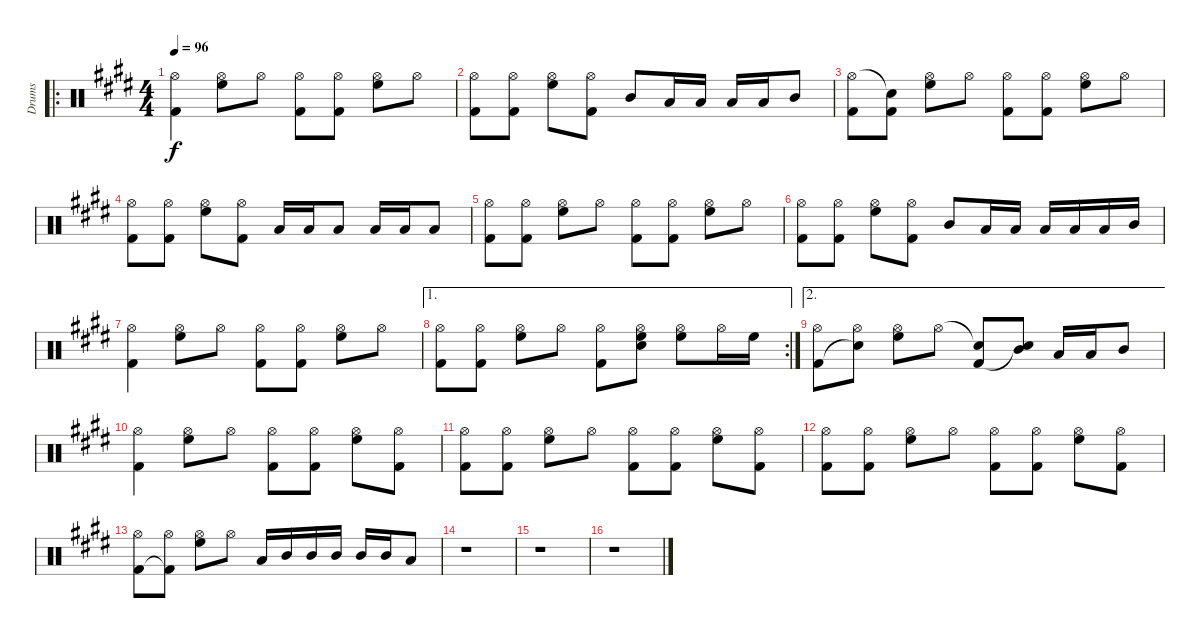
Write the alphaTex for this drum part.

\track ("Drums" "Drums") {instrument percussion}
\staff {score}
\articulation defaults
\ro
\ts (4 4)
\tempo 96
\clef neutral
\ks e
("Hi-Hat (open)" "Kick (hit) 2").4{dy f} ("Hi-Hat (open)" "High Floor Tom (hit)").8 "Hi-Hat (open)".8 ("Hi-Hat (open)" "Kick (hit) 2").8 ("Hi-Hat (open)" "Kick (hit) 2").8 ("Hi-Hat (open)" "High Floor Tom (hit)").8 "Hi-Hat (open)".8 |
("Hi-Hat (open)" "Kick (hit) 2").8 ("Hi-Hat (open)" "Kick (hit) 2").8 ("Hi-Hat (open)" "High Floor Tom (hit)").8 ("Hi-Hat (open)" "Kick (hit) 2").8 "Mid Tom (hit)".8 "Low Tom (hit)".16 "Low Tom (hit)".16 "Low Tom (hit)".16 "Low Tom (hit)".16 "Mid Tom (hit)".8 |
("Hi-Hat (open)" "Kick (hit) 2").8 ("Snare (hit)"{t} "Kick (hit) 2").8 ("Hi-Hat (open)" "High Floor Tom (hit)").8 "Hi-Hat (open)".8 ("Hi-Hat (open)" "Kick (hit) 2").8 ("Hi-Hat (open)" "Kick (hit) 2").8 ("Hi-Hat (open)" "High Floor Tom (hit)").8 "Hi-Hat (open)".8 |
("Hi-Hat (open)" "Kick (hit) 2").8 ("Hi-Hat (open)" "Kick (hit) 2").8 ("Hi-Hat (open)" "High Floor Tom (hit)").8 ("Hi-Hat (open)" "Kick (hit) 2").8 "Low Tom (hit)".16 "Low Tom (hit)".16 "Low Tom (hit)".8 "Low Tom (hit)".16 "Low Tom (hit)".16 "Low Tom (hit)".8 |
("Hi-Hat (open)" "Kick (hit) 2").8 ("Hi-Hat (open)" "Kick (hit) 2").8 ("Hi-Hat (open)" "High Floor Tom (hit)").8 "Hi-Hat (open)".8 ("Hi-Hat (open)" "Kick (hit) 2").8 ("Hi-Hat (open)" "Kick (hit) 2").8 ("Hi-Hat (open)" "High Floor Tom (hit)").8 "Hi-Hat (open)".8 |
("Hi-Hat (open)" "Kick (hit) 2").8 ("Hi-Hat (open)" "Kick (hit) 2").8 ("Hi-Hat (open)" "High Floor Tom (hit)").8 ("Hi-Hat (open)" "Kick (hit) 2").8 "Mid Tom (hit)".8 "Low Tom (hit)".16 "Low Tom (hit)".16 "Low Tom (hit)".16 "Low Tom (hit)".16 "Low Tom (hit)".16 "Mid Tom (hit)".16 |
("Hi-Hat (open)" "Kick (hit) 2").4 ("Hi-Hat (open)" "High Floor Tom (hit)").8 "Hi-Hat (open)".8 ("Hi-Hat (open)" "Kick (hit) 2").8 ("Hi-Hat (open)" "Kick (hit) 2").8 ("Hi-Hat (open)" "High Floor Tom (hit)").8 "Hi-Hat (open)".8 |
\ae 1
\rc 2
("Hi-Hat (open)" "Kick (hit) 2").8 ("Hi-Hat (open)" "Kick (hit) 2").8 ("Hi-Hat (open)" "High Floor Tom (hit)").8 "Hi-Hat (open)".8 ("Hi-Hat (open)" "Kick (hit) 2").8 ("Hi-Hat (open)" "High Floor Tom (hit)" "Snare (hit)").8 ("Hi-Hat (open)" "High Floor Tom (hit)").8 "Hi-Hat (open)".16 "High Floor Tom (hit)".16 |
\ae 2
("Hi-Hat (open)" "Kick (hit) 2").8 ("Hi-Hat (open)" "Snare (hit)"{t}).8 ("Hi-Hat (open)" "High Floor Tom (hit)").8 "Hi-Hat (open)".8 ("Snare (hit)"{t} "Kick (hit) 2").8 ("Mid Tom (hit)" "Snare (hit)"{t}).8 "Low Tom (hit)".16 "Low Tom (hit)".16 "Mid Tom (hit)".8 |
("Hi-Hat (open)" "Kick (hit) 2").4 ("Hi-Hat (open)" "High Floor Tom (hit)").8 "Hi-Hat (open)".8 ("Hi-Hat (open)" "Kick (hit) 2").8 ("Hi-Hat (open)" "Kick (hit) 2").8 ("Hi-Hat (open)" "High Floor Tom (hit)").8 ("Hi-Hat (open)" "Kick (hit) 2").8 |
("Hi-Hat (open)" "Kick (hit) 2").8 ("Hi-Hat (open)" "Kick (hit) 2").8 ("Hi-Hat (open)" "High Floor Tom (hit)").8 "Hi-Hat (open)".8 ("Hi-Hat (open)" "Kick (hit) 2").8 ("Hi-Hat (open)" "Kick (hit) 2").8 ("Hi-Hat (open)" "High Floor Tom (hit)").8 ("Hi-Hat (open)" "Kick (hit) 2").8 |
("Hi-Hat (open)" "Kick (hit) 2").8 ("Hi-Hat (open)" "Kick (hit) 2").8 ("Hi-Hat (open)" "High Floor Tom (hit)").8 "Hi-Hat (open)".8 ("Hi-Hat (open)" "Kick (hit) 2").8 ("Hi-Hat (open)" "Kick (hit) 2").8 ("Hi-Hat (open)" "High Floor Tom (hit)").8 ("Hi-Hat (open)" "Kick (hit) 2").8 |
("Hi-Hat (open)" "Kick (hit) 2").8 ("Hi-Hat (open)" "Kick (hit) 2"{t}).8 ("Hi-Hat (open)" "High Floor Tom (hit)").8 "Hi-Hat (open)".8 "Low Tom (hit)".16 "Mid Tom (hit)".16 "Mid Tom (hit)".16 "Mid Tom (hit)".16 "Mid Tom (hit)".16 "Mid Tom (hit)".16 "Low Tom (hit)".8 |
r.1 |
r.1 |
r.1
